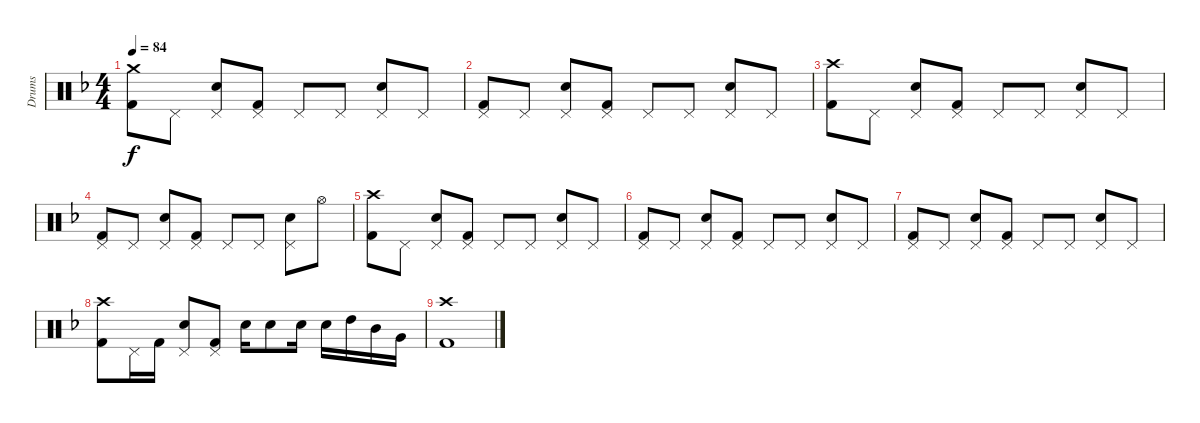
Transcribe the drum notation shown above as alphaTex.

\track ("Drums" "Drums") {instrument percussion}
\staff {score}
\articulation defaults
\ts (4 4)
\tempo 84
\clef neutral
\ks f
("Crash medium (hit)" "Kick (hit) 2").8{dy f} "Pedal Hi-Hat (hit)".8 ("Pedal Hi-Hat (hit)" "Snare (hit) 2").8 ("Pedal Hi-Hat (hit)" "Kick (hit) 2").8 "Pedal Hi-Hat (hit)".8 "Pedal Hi-Hat (hit)".8 ("Pedal Hi-Hat (hit)" "Snare (hit) 2").8 "Pedal Hi-Hat (hit)".8 |
("Pedal Hi-Hat (hit)" "Kick (hit) 2").8 "Pedal Hi-Hat (hit)".8 ("Pedal Hi-Hat (hit)" "Snare (hit) 2").8 ("Pedal Hi-Hat (hit)" "Kick (hit) 2").8 "Pedal Hi-Hat (hit)".8 "Pedal Hi-Hat (hit)".8 ("Pedal Hi-Hat (hit)" "Snare (hit) 2").8 "Pedal Hi-Hat (hit)".8 |
("Crash high (hit)" "Kick (hit) 2").8 "Pedal Hi-Hat (hit)".8 ("Pedal Hi-Hat (hit)" "Snare (hit) 2").8 ("Pedal Hi-Hat (hit)" "Kick (hit) 2").8 "Pedal Hi-Hat (hit)".8 "Pedal Hi-Hat (hit)".8 ("Pedal Hi-Hat (hit)" "Snare (hit) 2").8 "Pedal Hi-Hat (hit)".8 |
("Pedal Hi-Hat (hit)" "Kick (hit) 2").8 "Pedal Hi-Hat (hit)".8 ("Pedal Hi-Hat (hit)" "Snare (hit) 2").8 ("Pedal Hi-Hat (hit)" "Kick (hit) 2").8 "Pedal Hi-Hat (hit)".8 "Pedal Hi-Hat (hit)".8 ("Pedal Hi-Hat (hit)" "Snare (hit) 2").8 "Hi-Hat (open)".8 |
("Crash high (hit)" "Kick (hit) 2").8 "Pedal Hi-Hat (hit)".8 ("Pedal Hi-Hat (hit)" "Snare (hit) 2").8 ("Pedal Hi-Hat (hit)" "Kick (hit) 2").8 "Pedal Hi-Hat (hit)".8 "Pedal Hi-Hat (hit)".8 ("Pedal Hi-Hat (hit)" "Snare (hit) 2").8 "Pedal Hi-Hat (hit)".8 |
("Pedal Hi-Hat (hit)" "Kick (hit) 2").8 "Pedal Hi-Hat (hit)".8 ("Pedal Hi-Hat (hit)" "Snare (hit) 2").8 ("Pedal Hi-Hat (hit)" "Kick (hit) 2").8 "Pedal Hi-Hat (hit)".8 "Pedal Hi-Hat (hit)".8 ("Pedal Hi-Hat (hit)" "Snare (hit) 2").8 "Pedal Hi-Hat (hit)".8 |
("Pedal Hi-Hat (hit)" "Kick (hit) 2").8 "Pedal Hi-Hat (hit)".8 ("Pedal Hi-Hat (hit)" "Snare (hit) 2").8 ("Pedal Hi-Hat (hit)" "Kick (hit) 2").8 "Pedal Hi-Hat (hit)".8 "Pedal Hi-Hat (hit)".8 ("Pedal Hi-Hat (hit)" "Snare (hit) 2").8 "Pedal Hi-Hat (hit)".8 |
("Crash high (hit)" "Kick (hit) 2").8 "Pedal Hi-Hat (hit)".16 "Kick (hit) 2".16 ("Pedal Hi-Hat (hit)" "Snare (hit) 2").8 ("Pedal Hi-Hat (hit)" "Kick (hit) 2").8 "Snare (hit) 2".16 "Snare (hit) 2".8 "Snare (hit) 2".16 "Snare (hit) 2".16 "High Tom (hit)".16 "Mid Tom (hit)".16 "Very Low Tom (hit)".16 |
("Crash high (hit)" "Kick (hit) 2").1
